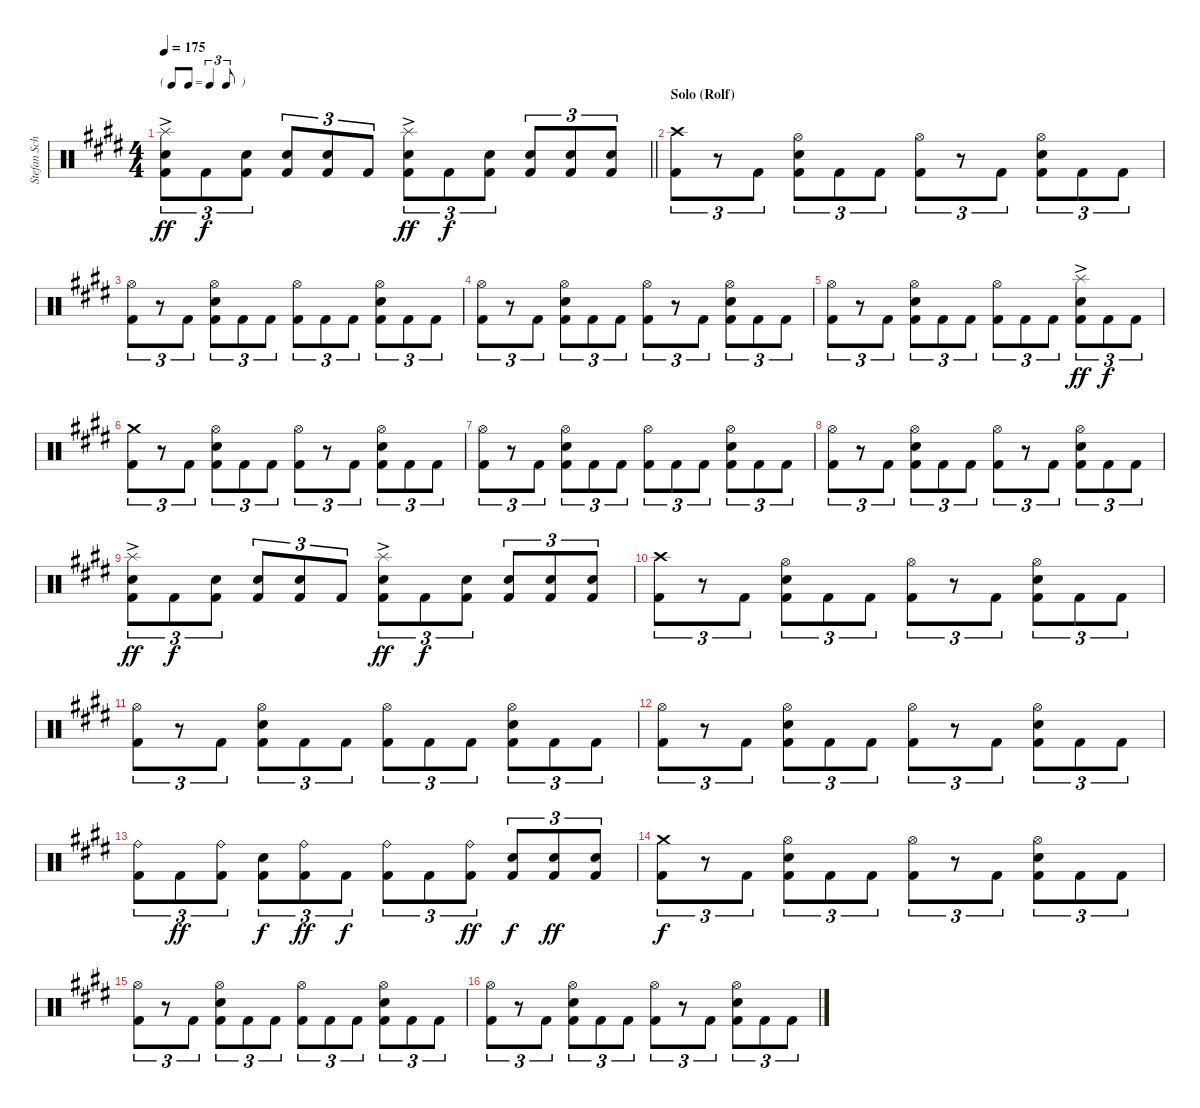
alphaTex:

\track ("Stefan Schwarzmann" "Stefan Sch") {instrument percussion}
\staff {score}
\articulation defaults
\ts (4 4)
\tf triplet8th
\tempo 175
\clef neutral
\barLineRight lightlight
\ks c#minor
("Splash (hit)"{ac} "Snare (hit) 2" "Kick (hit) 2").8{tu (3 2) dy ff} "Kick (hit) 2".8{tu (3 2) dy f} ("Snare (hit) 2" "Kick (hit) 2").8{tu (3 2)} ("Snare (hit) 2" "Kick (hit) 2").8{tu (3 2)} ("Snare (hit) 2" "Kick (hit) 2").8{tu (3 2)} "Kick (hit) 2".8{tu (3 2)} ("Splash (hit)"{ac} "Snare (hit) 2" "Kick (hit) 2").8{tu (3 2) dy ff} "Kick (hit) 2".8{tu (3 2) dy f} ("Snare (hit) 2" "Kick (hit) 2").8{tu (3 2)} ("Snare (hit) 2" "Kick (hit) 2").8{tu (3 2)} ("Snare (hit) 2" "Kick (hit) 2").8{tu (3 2)} ("Snare (hit) 2" "Kick (hit) 2").8{tu (3 2)} |
\section ("" "Solo (Rolf)")
("Crash high (hit)" "Kick (hit) 2").8{tu (3 2)} r.8{tu (3 2)} "Kick (hit) 2".8{tu (3 2)} ("Hi-Hat (open)" "Snare (hit) 2" "Kick (hit) 2").8{tu (3 2)} "Kick (hit) 2".8{tu (3 2)} "Kick (hit) 2".8{tu (3 2)} ("Hi-Hat (open)" "Kick (hit) 2").8{tu (3 2)} r.8{tu (3 2)} "Kick (hit) 2".8{tu (3 2)} ("Hi-Hat (open)" "Snare (hit) 2" "Kick (hit) 2").8{tu (3 2)} "Kick (hit) 2".8{tu (3 2)} "Kick (hit) 2".8{tu (3 2)} |
("Hi-Hat (open)" "Kick (hit) 2").8{tu (3 2)} r.8{tu (3 2)} "Kick (hit) 2".8{tu (3 2)} ("Hi-Hat (open)" "Snare (hit) 2" "Kick (hit) 2").8{tu (3 2)} "Kick (hit) 2".8{tu (3 2)} "Kick (hit) 2".8{tu (3 2)} ("Hi-Hat (open)" "Kick (hit) 2").8{tu (3 2)} "Kick (hit) 2".8{tu (3 2)} "Kick (hit) 2".8{tu (3 2)} ("Hi-Hat (open)" "Snare (hit) 2" "Kick (hit) 2").8{tu (3 2)} "Kick (hit) 2".8{tu (3 2)} "Kick (hit) 2".8{tu (3 2)} |
("Hi-Hat (open)" "Kick (hit) 2").8{tu (3 2)} r.8{tu (3 2)} "Kick (hit) 2".8{tu (3 2)} ("Hi-Hat (open)" "Snare (hit) 2" "Kick (hit) 2").8{tu (3 2)} "Kick (hit) 2".8{tu (3 2)} "Kick (hit) 2".8{tu (3 2)} ("Hi-Hat (open)" "Kick (hit) 2").8{tu (3 2)} r.8{tu (3 2)} "Kick (hit) 2".8{tu (3 2)} ("Hi-Hat (open)" "Snare (hit) 2" "Kick (hit) 2").8{tu (3 2)} "Kick (hit) 2".8{tu (3 2)} "Kick (hit) 2".8{tu (3 2)} |
("Hi-Hat (open)" "Kick (hit) 2").8{tu (3 2)} r.8{tu (3 2)} "Kick (hit) 2".8{tu (3 2)} ("Hi-Hat (open)" "Snare (hit) 2" "Kick (hit) 2").8{tu (3 2)} "Kick (hit) 2".8{tu (3 2)} "Kick (hit) 2".8{tu (3 2)} ("Hi-Hat (open)" "Kick (hit) 2").8{tu (3 2)} "Kick (hit) 2".8{tu (3 2)} "Kick (hit) 2".8{tu (3 2)} ("Splash (hit)"{ac} "Snare (hit) 2" "Kick (hit) 2").8{tu (3 2) dy ff} "Kick (hit) 2".8{tu (3 2) dy f} "Kick (hit) 2".8{tu (3 2)} |
("Crash medium (hit)" "Kick (hit) 2").8{tu (3 2)} r.8{tu (3 2)} "Kick (hit) 2".8{tu (3 2)} ("Hi-Hat (open)" "Snare (hit) 2" "Kick (hit) 2").8{tu (3 2)} "Kick (hit) 2".8{tu (3 2)} "Kick (hit) 2".8{tu (3 2)} ("Hi-Hat (open)" "Kick (hit) 2").8{tu (3 2)} r.8{tu (3 2)} "Kick (hit) 2".8{tu (3 2)} ("Hi-Hat (open)" "Snare (hit) 2" "Kick (hit) 2").8{tu (3 2)} "Kick (hit) 2".8{tu (3 2)} "Kick (hit) 2".8{tu (3 2)} |
("Hi-Hat (open)" "Kick (hit) 2").8{tu (3 2)} r.8{tu (3 2)} "Kick (hit) 2".8{tu (3 2)} ("Hi-Hat (open)" "Snare (hit) 2" "Kick (hit) 2").8{tu (3 2)} "Kick (hit) 2".8{tu (3 2)} "Kick (hit) 2".8{tu (3 2)} ("Hi-Hat (open)" "Kick (hit) 2").8{tu (3 2)} "Kick (hit) 2".8{tu (3 2)} "Kick (hit) 2".8{tu (3 2)} ("Hi-Hat (open)" "Snare (hit) 2" "Kick (hit) 2").8{tu (3 2)} "Kick (hit) 2".8{tu (3 2)} "Kick (hit) 2".8{tu (3 2)} |
("Hi-Hat (open)" "Kick (hit) 2").8{tu (3 2)} r.8{tu (3 2)} "Kick (hit) 2".8{tu (3 2)} ("Hi-Hat (open)" "Snare (hit) 2" "Kick (hit) 2").8{tu (3 2)} "Kick (hit) 2".8{tu (3 2)} "Kick (hit) 2".8{tu (3 2)} ("Hi-Hat (open)" "Kick (hit) 2").8{tu (3 2)} r.8{tu (3 2)} "Kick (hit) 2".8{tu (3 2)} ("Hi-Hat (open)" "Snare (hit) 2" "Kick (hit) 2").8{tu (3 2)} "Kick (hit) 2".8{tu (3 2)} "Kick (hit) 2".8{tu (3 2)} |
("Splash (hit)"{ac} "Snare (hit) 2" "Kick (hit) 2").8{tu (3 2) dy ff} "Kick (hit) 2".8{tu (3 2) dy f} ("Snare (hit) 2" "Kick (hit) 2").8{tu (3 2)} ("Snare (hit) 2" "Kick (hit) 2").8{tu (3 2)} ("Snare (hit) 2" "Kick (hit) 2").8{tu (3 2)} "Kick (hit) 2".8{tu (3 2)} ("Splash (hit)"{ac} "Snare (hit) 2" "Kick (hit) 2").8{tu (3 2) dy ff} "Kick (hit) 2".8{tu (3 2) dy f} ("Snare (hit) 2" "Kick (hit) 2").8{tu (3 2)} ("Snare (hit) 2" "Kick (hit) 2").8{tu (3 2)} ("Snare (hit) 2" "Kick (hit) 2").8{tu (3 2)} ("Snare (hit) 2" "Kick (hit) 2").8{tu (3 2)} |
("Crash high (hit)" "Kick (hit) 2").8{tu (3 2)} r.8{tu (3 2)} "Kick (hit) 2".8{tu (3 2)} ("Hi-Hat (open)" "Snare (hit) 2" "Kick (hit) 2").8{tu (3 2)} "Kick (hit) 2".8{tu (3 2)} "Kick (hit) 2".8{tu (3 2)} ("Hi-Hat (open)" "Kick (hit) 2").8{tu (3 2)} r.8{tu (3 2)} "Kick (hit) 2".8{tu (3 2)} ("Hi-Hat (open)" "Snare (hit) 2" "Kick (hit) 2").8{tu (3 2)} "Kick (hit) 2".8{tu (3 2)} "Kick (hit) 2".8{tu (3 2)} |
("Hi-Hat (open)" "Kick (hit) 2").8{tu (3 2)} r.8{tu (3 2)} "Kick (hit) 2".8{tu (3 2)} ("Hi-Hat (open)" "Snare (hit) 2" "Kick (hit) 2").8{tu (3 2)} "Kick (hit) 2".8{tu (3 2)} "Kick (hit) 2".8{tu (3 2)} ("Hi-Hat (open)" "Kick (hit) 2").8{tu (3 2)} "Kick (hit) 2".8{tu (3 2)} "Kick (hit) 2".8{tu (3 2)} ("Hi-Hat (open)" "Snare (hit) 2" "Kick (hit) 2").8{tu (3 2)} "Kick (hit) 2".8{tu (3 2)} "Kick (hit) 2".8{tu (3 2)} |
("Hi-Hat (open)" "Kick (hit) 2").8{tu (3 2)} r.8{tu (3 2)} "Kick (hit) 2".8{tu (3 2)} ("Hi-Hat (open)" "Snare (hit) 2" "Kick (hit) 2").8{tu (3 2)} "Kick (hit) 2".8{tu (3 2)} "Kick (hit) 2".8{tu (3 2)} ("Hi-Hat (open)" "Kick (hit) 2").8{tu (3 2)} r.8{tu (3 2)} "Kick (hit) 2".8{tu (3 2)} ("Hi-Hat (open)" "Snare (hit) 2" "Kick (hit) 2").8{tu (3 2)} "Kick (hit) 2".8{tu (3 2)} "Kick (hit) 2".8{tu (3 2)} |
("Ride (bell)" "Kick (hit) 2").8{tu (3 2)} "Kick (hit) 2".8{tu (3 2) dy ff} ("Ride (bell)" "Kick (hit) 2").8{tu (3 2)} ("Snare (hit) 2" "Kick (hit) 2").8{tu (3 2) dy f} ("Ride (bell)" "Kick (hit) 2").8{tu (3 2) dy ff} "Kick (hit) 2".8{tu (3 2) dy f} ("Ride (bell)" "Kick (hit) 2").8{tu (3 2)} "Kick (hit) 2".8{tu (3 2)} ("Ride (bell)" "Kick (hit) 2").8{tu (3 2) dy ff} ("Snare (hit) 2" "Kick (hit) 2").8{tu (3 2) dy f} ("Snare (hit) 2" "Kick (hit) 2").8{tu (3 2) dy ff} ("Snare (hit) 2" "Kick (hit) 2").8{tu (3 2)} |
("Crash medium (hit)" "Kick (hit) 2").8{tu (3 2) dy f} r.8{tu (3 2)} "Kick (hit) 2".8{tu (3 2)} ("Hi-Hat (open)" "Snare (hit) 2" "Kick (hit) 2").8{tu (3 2)} "Kick (hit) 2".8{tu (3 2)} "Kick (hit) 2".8{tu (3 2)} ("Hi-Hat (open)" "Kick (hit) 2").8{tu (3 2)} r.8{tu (3 2)} "Kick (hit) 2".8{tu (3 2)} ("Hi-Hat (open)" "Snare (hit) 2" "Kick (hit) 2").8{tu (3 2)} "Kick (hit) 2".8{tu (3 2)} "Kick (hit) 2".8{tu (3 2)} |
("Hi-Hat (open)" "Kick (hit) 2").8{tu (3 2)} r.8{tu (3 2)} "Kick (hit) 2".8{tu (3 2)} ("Hi-Hat (open)" "Snare (hit) 2" "Kick (hit) 2").8{tu (3 2)} "Kick (hit) 2".8{tu (3 2)} "Kick (hit) 2".8{tu (3 2)} ("Hi-Hat (open)" "Kick (hit) 2").8{tu (3 2)} "Kick (hit) 2".8{tu (3 2)} "Kick (hit) 2".8{tu (3 2)} ("Hi-Hat (open)" "Snare (hit) 2" "Kick (hit) 2").8{tu (3 2)} "Kick (hit) 2".8{tu (3 2)} "Kick (hit) 2".8{tu (3 2)} |
("Hi-Hat (open)" "Kick (hit) 2").8{tu (3 2)} r.8{tu (3 2)} "Kick (hit) 2".8{tu (3 2)} ("Hi-Hat (open)" "Snare (hit) 2" "Kick (hit) 2").8{tu (3 2)} "Kick (hit) 2".8{tu (3 2)} "Kick (hit) 2".8{tu (3 2)} ("Hi-Hat (open)" "Kick (hit) 2").8{tu (3 2)} r.8{tu (3 2)} "Kick (hit) 2".8{tu (3 2)} ("Hi-Hat (open)" "Snare (hit) 2" "Kick (hit) 2").8{tu (3 2)} "Kick (hit) 2".8{tu (3 2)} "Kick (hit) 2".8{tu (3 2)}
